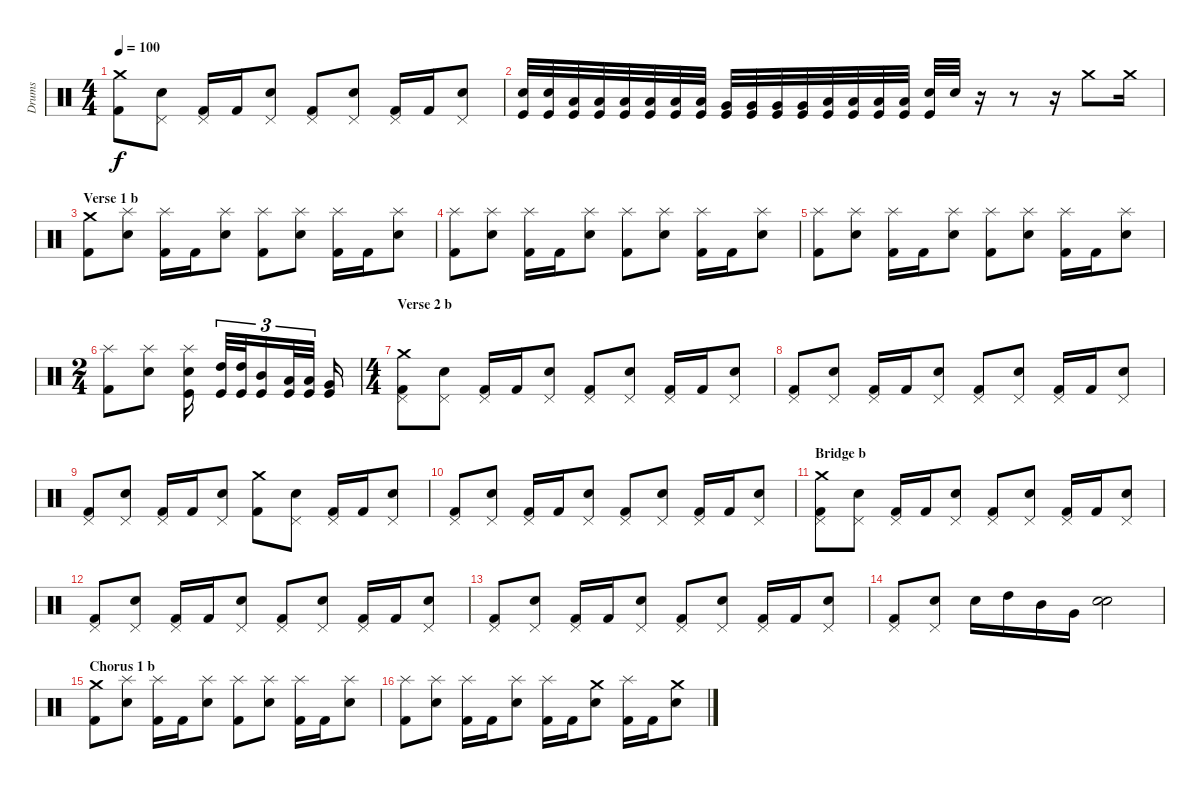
\track ("Drums" "Drums") {instrument percussion}
\staff {score}
\articulation defaults
\ts (4 4)
\tempo 100
\clef neutral
\ks c
("Crash medium (hit)" "Kick (hit) 2").8{dy f} ("Pedal Hi-Hat (hit)" "Electric Snare (hit)").8 ("Pedal Hi-Hat (hit)" "Kick (hit) 2").16 "Kick (hit) 2".16 ("Pedal Hi-Hat (hit)" "Electric Snare (hit)").8 ("Pedal Hi-Hat (hit)" "Kick (hit) 2").8 ("Pedal Hi-Hat (hit)" "Electric Snare (hit)").8 ("Pedal Hi-Hat (hit)" "Kick (hit) 2").16 "Kick (hit) 2".16 ("Pedal Hi-Hat (hit)" "Electric Snare (hit)").8 |
("Electric Snare (hit)" "Kick (hit)").32 ("Electric Snare (hit)" "Kick (hit)").32 ("Low Tom (hit)" "Kick (hit)").32 ("Low Tom (hit)" "Kick (hit)").32 ("Low Tom (hit)" "Kick (hit)").32 ("Low Tom (hit)" "Kick (hit)").32 ("Low Tom (hit)" "Kick (hit)").32 ("Low Tom (hit)" "Kick (hit)").32 ("Very Low Tom (hit)" "Kick (hit)").32 ("Very Low Tom (hit)" "Kick (hit)").32 ("Very Low Tom (hit)" "Kick (hit)").32 ("Very Low Tom (hit)" "Kick (hit)").32 ("Low Floor Tom (hit)" "Kick (hit)").32 ("Low Floor Tom (hit)" "Kick (hit)").32 ("Low Floor Tom (hit)" "Kick (hit)").32 ("Low Floor Tom (hit)" "Kick (hit)").32 ("Electric Snare (hit)" "Kick (hit)").32 "Electric Snare (hit)".32 r.16 r.8 r.16 "Crash medium (hit)".8 "Crash medium (hit)".16 |
\section ("" "Verse 1 b")
("Crash medium (hit)" "Kick (hit) 2").8 ("Splash (hit)" "Electric Snare (hit)").8 ("Splash (hit)" "Kick (hit) 2").16 "Kick (hit) 2".16 ("Splash (hit)" "Electric Snare (hit)").8 ("Splash (hit)" "Kick (hit) 2").8 ("Splash (hit)" "Electric Snare (hit)").8 ("Splash (hit)" "Kick (hit) 2").16 "Kick (hit) 2".16 ("Splash (hit)" "Electric Snare (hit)").8 |
("Splash (hit)" "Kick (hit) 2").8 ("Splash (hit)" "Electric Snare (hit)").8 ("Splash (hit)" "Kick (hit) 2").16 "Kick (hit) 2".16 ("Splash (hit)" "Electric Snare (hit)").8 ("Splash (hit)" "Kick (hit) 2").8 ("Splash (hit)" "Electric Snare (hit)").8 ("Splash (hit)" "Kick (hit) 2").16 "Kick (hit) 2".16 ("Splash (hit)" "Electric Snare (hit)").8 |
("Splash (hit)" "Kick (hit) 2").8 ("Splash (hit)" "Electric Snare (hit)").8 ("Splash (hit)" "Kick (hit) 2").16 "Kick (hit) 2".16 ("Splash (hit)" "Electric Snare (hit)").8 ("Splash (hit)" "Kick (hit) 2").8 ("Splash (hit)" "Electric Snare (hit)").8 ("Splash (hit)" "Kick (hit) 2").16 "Kick (hit) 2".16 ("Splash (hit)" "Electric Snare (hit)").8 |
\ts (2 4)
("Splash (hit)" "Kick (hit) 2").8 ("Splash (hit)" "Electric Snare (hit)").8 ("Splash (hit)" "Electric Snare (hit)" "Kick (hit)").16 ("High Tom (hit)" "Kick (hit)").32{tu (3 2)} ("High Tom (hit)" "Kick (hit)").32{tu (3 2)} ("Mid Tom (hit)" "Kick (hit)").16{tu (3 2)} ("Low Tom (hit)" "Kick (hit)").32{tu (3 2)} ("Low Tom (hit)" "Kick (hit)").32{tu (3 2)} ("Kick (hit)" "Very Low Tom (hit)").16 |
\ts (4 4)
\section ("" "Verse 2 b")
("Pedal Hi-Hat (hit)" "Crash medium (hit)" "Kick (hit) 2").8 ("Pedal Hi-Hat (hit)" "Electric Snare (hit)").8 ("Pedal Hi-Hat (hit)" "Kick (hit) 2").16 "Kick (hit) 2".16 ("Pedal Hi-Hat (hit)" "Electric Snare (hit)").8 ("Pedal Hi-Hat (hit)" "Kick (hit) 2").8 ("Pedal Hi-Hat (hit)" "Electric Snare (hit)").8 ("Pedal Hi-Hat (hit)" "Kick (hit) 2").16 "Kick (hit) 2".16 ("Pedal Hi-Hat (hit)" "Electric Snare (hit)").8 |
("Pedal Hi-Hat (hit)" "Kick (hit) 2").8 ("Pedal Hi-Hat (hit)" "Electric Snare (hit)").8 ("Pedal Hi-Hat (hit)" "Kick (hit) 2").16 "Kick (hit) 2".16 ("Pedal Hi-Hat (hit)" "Electric Snare (hit)").8 ("Pedal Hi-Hat (hit)" "Kick (hit) 2").8 ("Pedal Hi-Hat (hit)" "Electric Snare (hit)").8 ("Pedal Hi-Hat (hit)" "Kick (hit) 2").16 "Kick (hit) 2".16 ("Pedal Hi-Hat (hit)" "Electric Snare (hit)").8 |
("Pedal Hi-Hat (hit)" "Kick (hit) 2").8 ("Pedal Hi-Hat (hit)" "Electric Snare (hit)").8 ("Pedal Hi-Hat (hit)" "Kick (hit) 2").16 "Kick (hit) 2".16 ("Pedal Hi-Hat (hit)" "Electric Snare (hit)").8 ("Crash medium (hit)" "Kick (hit) 2").8 ("Pedal Hi-Hat (hit)" "Electric Snare (hit)").8 ("Pedal Hi-Hat (hit)" "Kick (hit) 2").16 "Kick (hit) 2".16 ("Pedal Hi-Hat (hit)" "Electric Snare (hit)").8 |
("Pedal Hi-Hat (hit)" "Kick (hit) 2").8 ("Pedal Hi-Hat (hit)" "Electric Snare (hit)").8 ("Pedal Hi-Hat (hit)" "Kick (hit) 2").16 "Kick (hit) 2".16 ("Pedal Hi-Hat (hit)" "Electric Snare (hit)").8 ("Pedal Hi-Hat (hit)" "Kick (hit) 2").8 ("Pedal Hi-Hat (hit)" "Electric Snare (hit)").8 ("Pedal Hi-Hat (hit)" "Kick (hit) 2").16 "Kick (hit) 2".16 ("Pedal Hi-Hat (hit)" "Electric Snare (hit)").8 |
\section ("" "Bridge b")
("Pedal Hi-Hat (hit)" "Crash medium (hit)" "Kick (hit) 2").8 ("Pedal Hi-Hat (hit)" "Electric Snare (hit)").8 ("Pedal Hi-Hat (hit)" "Kick (hit) 2").16 "Kick (hit) 2".16 ("Pedal Hi-Hat (hit)" "Electric Snare (hit)").8 ("Pedal Hi-Hat (hit)" "Kick (hit) 2").8 ("Pedal Hi-Hat (hit)" "Electric Snare (hit)").8 ("Pedal Hi-Hat (hit)" "Kick (hit) 2").16 "Kick (hit) 2".16 ("Pedal Hi-Hat (hit)" "Electric Snare (hit)").8 |
("Pedal Hi-Hat (hit)" "Kick (hit) 2").8 ("Pedal Hi-Hat (hit)" "Electric Snare (hit)").8 ("Pedal Hi-Hat (hit)" "Kick (hit) 2").16 "Kick (hit) 2".16 ("Pedal Hi-Hat (hit)" "Electric Snare (hit)").8 ("Pedal Hi-Hat (hit)" "Kick (hit) 2").8 ("Pedal Hi-Hat (hit)" "Electric Snare (hit)").8 ("Pedal Hi-Hat (hit)" "Kick (hit) 2").16 "Kick (hit) 2".16 ("Pedal Hi-Hat (hit)" "Electric Snare (hit)").8 |
("Pedal Hi-Hat (hit)" "Kick (hit) 2").8 ("Pedal Hi-Hat (hit)" "Electric Snare (hit)").8 ("Pedal Hi-Hat (hit)" "Kick (hit) 2").16 "Kick (hit) 2".16 ("Pedal Hi-Hat (hit)" "Electric Snare (hit)").8 ("Pedal Hi-Hat (hit)" "Kick (hit) 2").8 ("Pedal Hi-Hat (hit)" "Electric Snare (hit)").8 ("Pedal Hi-Hat (hit)" "Kick (hit) 2").16 "Kick (hit) 2".16 ("Pedal Hi-Hat (hit)" "Electric Snare (hit)").8 |
("Pedal Hi-Hat (hit)" "Kick (hit) 2").8 ("Pedal Hi-Hat (hit)" "Electric Snare (hit)").8 "Electric Snare (hit)".16 "High Tom (hit)".16 "Mid Tom (hit)".16 "Very Low Tom (hit)".16 ("Electric Snare (hit)" "Snare (hit) 2").2 |
\section ("" "Chorus 1 b")
("Crash medium (hit)" "Kick (hit) 2").8 ("Splash (hit)" "Electric Snare (hit)").8 ("Splash (hit)" "Kick (hit) 2").16 "Kick (hit) 2".16 ("Splash (hit)" "Electric Snare (hit)").8 ("Splash (hit)" "Kick (hit) 2").8 ("Splash (hit)" "Electric Snare (hit)").8 ("Splash (hit)" "Kick (hit) 2").16 "Kick (hit) 2".16 ("Splash (hit)" "Electric Snare (hit)").8 |
("Splash (hit)" "Kick (hit) 2").8 ("Splash (hit)" "Electric Snare (hit)").8 ("Splash (hit)" "Kick (hit) 2").16 "Kick (hit) 2".16 ("Splash (hit)" "Electric Snare (hit)").8 ("Splash (hit)" "Kick (hit) 2").16 "Kick (hit) 2".16 ("Crash medium (hit)" "Electric Snare (hit)").8 ("Splash (hit)" "Kick (hit) 2").16 "Kick (hit) 2".16 ("Crash medium (hit)" "Electric Snare (hit)").8
